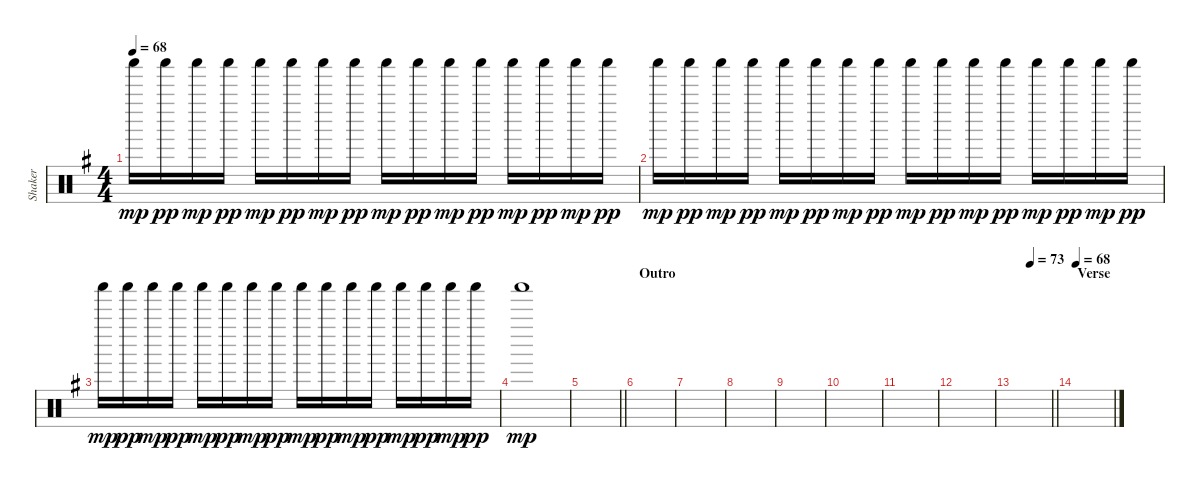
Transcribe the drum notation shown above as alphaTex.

\track ("Shaker" "Shaker") {instrument percussion}
\staff {score}
\articulation defaults
\ts (4 4)
\tempo 68
\clef neutral
\ks g "Shaker (hit)".16{dy mp} "Shaker (hit)".16{dy pp} "Shaker (hit)".16{dy mp} "Shaker (hit)".16{dy pp} "Shaker (hit)".16{dy mp} "Shaker (hit)".16{dy pp} "Shaker (hit)".16{dy mp} "Shaker (hit)".16{dy pp} "Shaker (hit)".16{dy mp} "Shaker (hit)".16{dy pp} "Shaker (hit)".16{dy mp} "Shaker (hit)".16{dy pp} "Shaker (hit)".16{dy mp} "Shaker (hit)".16{dy pp} "Shaker (hit)".16{dy mp} "Shaker (hit)".16{dy pp}
|
"Shaker (hit)".16{dy mp} "Shaker (hit)".16{dy pp} "Shaker (hit)".16{dy mp} "Shaker (hit)".16{dy pp} "Shaker (hit)".16{dy mp} "Shaker (hit)".16{dy pp} "Shaker (hit)".16{dy mp} "Shaker (hit)".16{dy pp} "Shaker (hit)".16{dy mp} "Shaker (hit)".16{dy pp} "Shaker (hit)".16{dy mp} "Shaker (hit)".16{dy pp} "Shaker (hit)".16{dy mp} "Shaker (hit)".16{dy pp} "Shaker (hit)".16{dy mp} "Shaker (hit)".16{dy pp} |
"Shaker (hit)".16{dy mp} "Shaker (hit)".16{dy pp} "Shaker (hit)".16{dy mp} "Shaker (hit)".16{dy pp} "Shaker (hit)".16{dy mp} "Shaker (hit)".16{dy pp} "Shaker (hit)".16{dy mp} "Shaker (hit)".16{dy pp} "Shaker (hit)".16{dy mp} "Shaker (hit)".16{dy pp} "Shaker (hit)".16{dy mp} "Shaker (hit)".16{dy pp} "Shaker (hit)".16{dy mp} "Shaker (hit)".16{dy pp} "Shaker (hit)".16{dy mp} "Shaker (hit)".16{dy pp} |
"Shaker (hit)".1{dy mp} |
\barLineRight lightlight
|
\section ("" "Outro")
|
|
|
|
|
|
|
\tempo (73 0.4375)
\barLineRight lightlight
|
\section ("" "Verse")
\tempo 68
